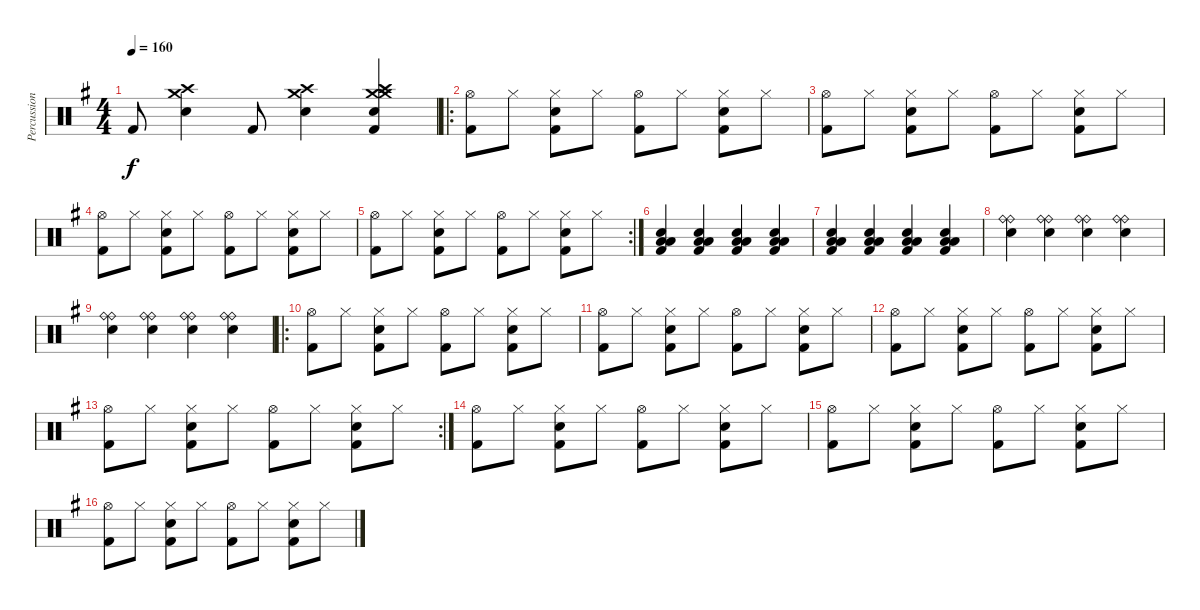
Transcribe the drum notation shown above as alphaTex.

\track ("Percussions" "Percussion") {instrument percussion}
\staff {score}
\articulation defaults
\ts (4 4)
\tempo 160
\clef neutral
\ks g "Kick (hit) 2".8{dy f}
("Crash medium (hit)" "Crash high (hit)" "Snare (hit) 2").4 "Kick (hit) 2".8 ("Crash medium (hit)" "Crash high (hit)" "Snare (hit) 2").4 ("Crash medium (hit)" "Crash medium (hit)" "Crash high (hit)" "Snare (hit) 2" "Kick (hit) 2").4 |
\ro
("Hi-Hat (open)" "Kick (hit) 2").8 "Hi-Hat (closed)".8 ("Hi-Hat (closed)" "Snare (hit) 2" "Kick (hit) 2").8 "Hi-Hat (closed)".8 ("Hi-Hat (open)" "Kick (hit) 2").8 "Hi-Hat (closed)".8 ("Hi-Hat (closed)" "Snare (hit) 2" "Kick (hit) 2").8 "Hi-Hat (closed)".8 |
("Hi-Hat (open)" "Kick (hit) 2").8 "Hi-Hat (closed)".8 ("Hi-Hat (closed)" "Snare (hit) 2" "Kick (hit) 2").8 "Hi-Hat (closed)".8 ("Hi-Hat (open)" "Kick (hit) 2").8 "Hi-Hat (closed)".8 ("Hi-Hat (closed)" "Snare (hit) 2" "Kick (hit) 2").8 "Hi-Hat (closed)".8 |
("Hi-Hat (open)" "Kick (hit) 2").8 "Hi-Hat (closed)".8 ("Hi-Hat (closed)" "Snare (hit) 2" "Kick (hit) 2").8 "Hi-Hat (closed)".8 ("Hi-Hat (open)" "Kick (hit) 2").8 "Hi-Hat (closed)".8 ("Hi-Hat (closed)" "Snare (hit) 2" "Kick (hit) 2").8 "Hi-Hat (closed)".8 |
\rc 2
("Hi-Hat (open)" "Kick (hit) 2").8 "Hi-Hat (closed)".8 ("Hi-Hat (closed)" "Snare (hit) 2" "Kick (hit) 2").8 "Hi-Hat (closed)".8 ("Hi-Hat (open)" "Kick (hit) 2").8 "Hi-Hat (closed)".8 ("Hi-Hat (closed)" "Snare (hit) 2" "Kick (hit) 2").8 "Hi-Hat (closed)".8 |
("Low Tom (hit)" "Snare (hit) 2" "Low Tom (hit)" "Kick (hit) 2").4 ("Low Tom (hit)" "Snare (hit) 2" "Low Tom (hit)" "Kick (hit) 2").4 ("Low Tom (hit)" "Snare (hit) 2" "Low Tom (hit)" "Kick (hit) 2").4 ("Low Tom (hit)" "Snare (hit) 2" "Low Tom (hit)" "Kick (hit) 2").4 |
("Low Tom (hit)" "Snare (hit) 2" "Low Tom (hit)" "Kick (hit) 2").4 ("Low Tom (hit)" "Snare (hit) 2" "Low Tom (hit)" "Kick (hit) 2").4 ("Low Tom (hit)" "Snare (hit) 2" "Low Tom (hit)" "Kick (hit) 2").4 ("Low Tom (hit)" "Snare (hit) 2" "Low Tom (hit)" "Kick (hit) 2").4 |
("Ride (bell)" "Ride (bell)" "Snare (hit) 2").4 ("Ride (bell)" "Ride (bell)" "Snare (hit) 2").4 ("Ride (bell)" "Ride (bell)" "Snare (hit) 2").4 ("Ride (bell)" "Ride (bell)" "Snare (hit) 2").4 |
("Ride (bell)" "Ride (bell)" "Snare (hit) 2").4 ("Ride (bell)" "Ride (bell)" "Snare (hit) 2").4 ("Ride (bell)" "Ride (bell)" "Snare (hit) 2").4 ("Ride (bell)" "Ride (bell)" "Snare (hit) 2").4 |
\ro
("Hi-Hat (open)" "Kick (hit) 2").8 "Hi-Hat (closed)".8 ("Hi-Hat (closed)" "Snare (hit) 2" "Kick (hit) 2").8 "Hi-Hat (closed)".8 ("Hi-Hat (open)" "Kick (hit) 2").8 "Hi-Hat (closed)".8 ("Hi-Hat (closed)" "Snare (hit) 2" "Kick (hit) 2").8 "Hi-Hat (closed)".8 |
("Hi-Hat (open)" "Kick (hit) 2").8 "Hi-Hat (closed)".8 ("Hi-Hat (closed)" "Snare (hit) 2" "Kick (hit) 2").8 "Hi-Hat (closed)".8 ("Hi-Hat (open)" "Kick (hit) 2").8 "Hi-Hat (closed)".8 ("Hi-Hat (closed)" "Snare (hit) 2" "Kick (hit) 2").8 "Hi-Hat (closed)".8 |
("Hi-Hat (open)" "Kick (hit) 2").8 "Hi-Hat (closed)".8 ("Hi-Hat (closed)" "Snare (hit) 2" "Kick (hit) 2").8 "Hi-Hat (closed)".8 ("Hi-Hat (open)" "Kick (hit) 2").8 "Hi-Hat (closed)".8 ("Hi-Hat (closed)" "Snare (hit) 2" "Kick (hit) 2").8 "Hi-Hat (closed)".8 |
\rc 2
("Hi-Hat (open)" "Kick (hit) 2").8 "Hi-Hat (closed)".8 ("Hi-Hat (closed)" "Snare (hit) 2" "Kick (hit) 2").8 "Hi-Hat (closed)".8 ("Hi-Hat (open)" "Kick (hit) 2").8 "Hi-Hat (closed)".8 ("Hi-Hat (closed)" "Snare (hit) 2" "Kick (hit) 2").8 "Hi-Hat (closed)".8 |
("Hi-Hat (open)" "Kick (hit) 2").8 "Hi-Hat (closed)".8 ("Hi-Hat (closed)" "Snare (hit) 2" "Kick (hit) 2").8 "Hi-Hat (closed)".8 ("Hi-Hat (open)" "Kick (hit) 2").8 "Hi-Hat (closed)".8 ("Hi-Hat (closed)" "Snare (hit) 2" "Kick (hit) 2").8 "Hi-Hat (closed)".8 |
("Hi-Hat (open)" "Kick (hit) 2").8 "Hi-Hat (closed)".8 ("Hi-Hat (closed)" "Snare (hit) 2" "Kick (hit) 2").8 "Hi-Hat (closed)".8 ("Hi-Hat (open)" "Kick (hit) 2").8 "Hi-Hat (closed)".8 ("Hi-Hat (closed)" "Snare (hit) 2" "Kick (hit) 2").8 "Hi-Hat (closed)".8 |
("Hi-Hat (open)" "Kick (hit) 2").8 "Hi-Hat (closed)".8 ("Hi-Hat (closed)" "Snare (hit) 2" "Kick (hit) 2").8 "Hi-Hat (closed)".8 ("Hi-Hat (open)" "Kick (hit) 2").8 "Hi-Hat (closed)".8 ("Hi-Hat (closed)" "Snare (hit) 2" "Kick (hit) 2").8 "Hi-Hat (closed)".8
